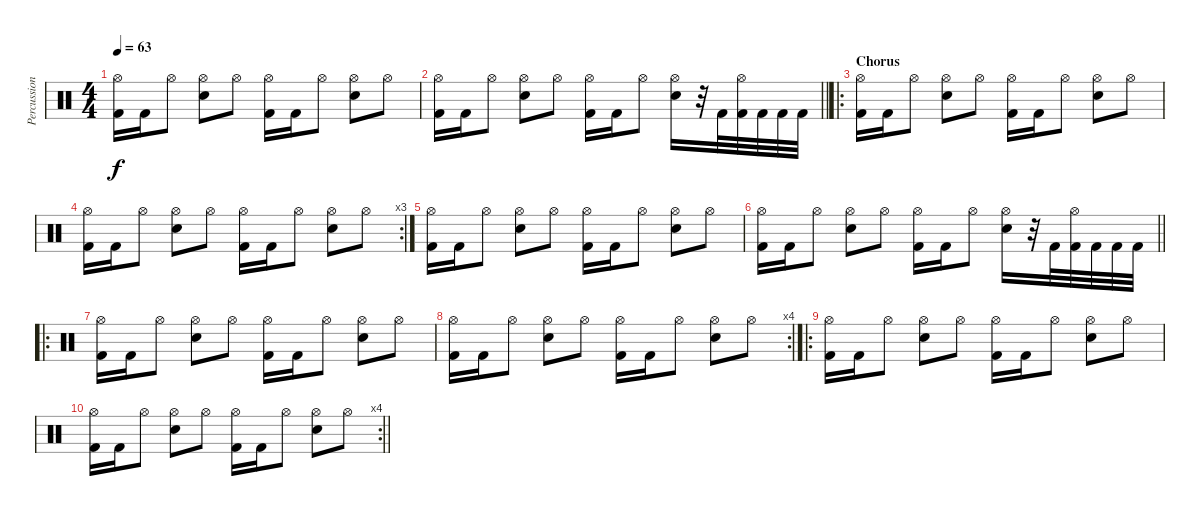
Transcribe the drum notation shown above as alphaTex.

\track ("Percussion" "Percussion") {instrument percussion}
\staff {score}
\articulation defaults
\ts (4 4)
\tempo 63
\clef neutral
\ks c
("Hi-Hat (open)" "Kick (hit) 2").16{dy f} "Kick (hit) 2".16 "Hi-Hat (open)".8 ("Hi-Hat (open)" "Electric Snare (hit)").8 "Hi-Hat (open)".8 ("Hi-Hat (open)" "Kick (hit) 2").16 "Kick (hit) 2".16 "Hi-Hat (open)".8 ("Hi-Hat (open)" "Electric Snare (hit)").8 "Hi-Hat (open)".8 |
\barLineRight lightlight
("Hi-Hat (open)" "Kick (hit) 2").16 "Kick (hit) 2".16 "Hi-Hat (open)".8 ("Hi-Hat (open)" "Electric Snare (hit)").8 "Hi-Hat (open)".8 ("Hi-Hat (open)" "Kick (hit) 2").16 "Kick (hit) 2".16 "Hi-Hat (open)".8 ("Hi-Hat (open)" "Electric Snare (hit)").16 r.32 "Kick (hit) 2".32 ("Hi-Hat (open)" "Kick (hit) 2").32 "Kick (hit) 2".32 "Kick (hit) 2".32 "Kick (hit) 2".32 |
\ro
\section ("" "Chorus")
("Hi-Hat (open)" "Kick (hit) 2").16 "Kick (hit) 2".16 "Hi-Hat (open)".8 ("Hi-Hat (open)" "Electric Snare (hit)").8 "Hi-Hat (open)".8 ("Hi-Hat (open)" "Kick (hit) 2").16 "Kick (hit) 2".16 "Hi-Hat (open)".8 ("Hi-Hat (open)" "Electric Snare (hit)").8 "Hi-Hat (open)".8 |
\rc 3
("Hi-Hat (open)" "Kick (hit) 2").16 "Kick (hit) 2".16 "Hi-Hat (open)".8 ("Hi-Hat (open)" "Electric Snare (hit)").8 "Hi-Hat (open)".8 ("Hi-Hat (open)" "Kick (hit) 2").16 "Kick (hit) 2".16 "Hi-Hat (open)".8 ("Hi-Hat (open)" "Electric Snare (hit)").8 "Hi-Hat (open)".8 |
("Hi-Hat (open)" "Kick (hit) 2").16 "Kick (hit) 2".16 "Hi-Hat (open)".8 ("Hi-Hat (open)" "Electric Snare (hit)").8 "Hi-Hat (open)".8 ("Hi-Hat (open)" "Kick (hit) 2").16 "Kick (hit) 2".16 "Hi-Hat (open)".8 ("Hi-Hat (open)" "Electric Snare (hit)").8 "Hi-Hat (open)".8 |
\barLineRight lightlight
("Hi-Hat (open)" "Kick (hit) 2").16 "Kick (hit) 2".16 "Hi-Hat (open)".8 ("Hi-Hat (open)" "Electric Snare (hit)").8 "Hi-Hat (open)".8 ("Hi-Hat (open)" "Kick (hit) 2").16 "Kick (hit) 2".16 "Hi-Hat (open)".8 ("Hi-Hat (open)" "Electric Snare (hit)").16 r.32 "Kick (hit) 2".32 ("Hi-Hat (open)" "Kick (hit) 2").32 "Kick (hit) 2".32 "Kick (hit) 2".32 "Kick (hit) 2".32 |
\ro
("Hi-Hat (open)" "Kick (hit) 2").16 "Kick (hit) 2".16 "Hi-Hat (open)".8 ("Hi-Hat (open)" "Electric Snare (hit)").8 "Hi-Hat (open)".8 ("Hi-Hat (open)" "Kick (hit) 2").16 "Kick (hit) 2".16 "Hi-Hat (open)".8 ("Hi-Hat (open)" "Electric Snare (hit)").8 "Hi-Hat (open)".8 |
\rc 4
("Hi-Hat (open)" "Kick (hit) 2").16 "Kick (hit) 2".16 "Hi-Hat (open)".8 ("Hi-Hat (open)" "Electric Snare (hit)").8 "Hi-Hat (open)".8 ("Hi-Hat (open)" "Kick (hit) 2").16 "Kick (hit) 2".16 "Hi-Hat (open)".8 ("Hi-Hat (open)" "Electric Snare (hit)").8 "Hi-Hat (open)".8 |
\ro
("Hi-Hat (open)" "Kick (hit) 2").16 "Kick (hit) 2".16 "Hi-Hat (open)".8 ("Hi-Hat (open)" "Electric Snare (hit)").8 "Hi-Hat (open)".8 ("Hi-Hat (open)" "Kick (hit) 2").16 "Kick (hit) 2".16 "Hi-Hat (open)".8 ("Hi-Hat (open)" "Electric Snare (hit)").8 "Hi-Hat (open)".8 |
\rc 4
\barLineRight lightlight
("Hi-Hat (open)" "Kick (hit) 2").16 "Kick (hit) 2".16 "Hi-Hat (open)".8 ("Hi-Hat (open)" "Electric Snare (hit)").8 "Hi-Hat (open)".8 ("Hi-Hat (open)" "Kick (hit) 2").16 "Kick (hit) 2".16 "Hi-Hat (open)".8 ("Hi-Hat (open)" "Electric Snare (hit)").8 "Hi-Hat (open)".8
